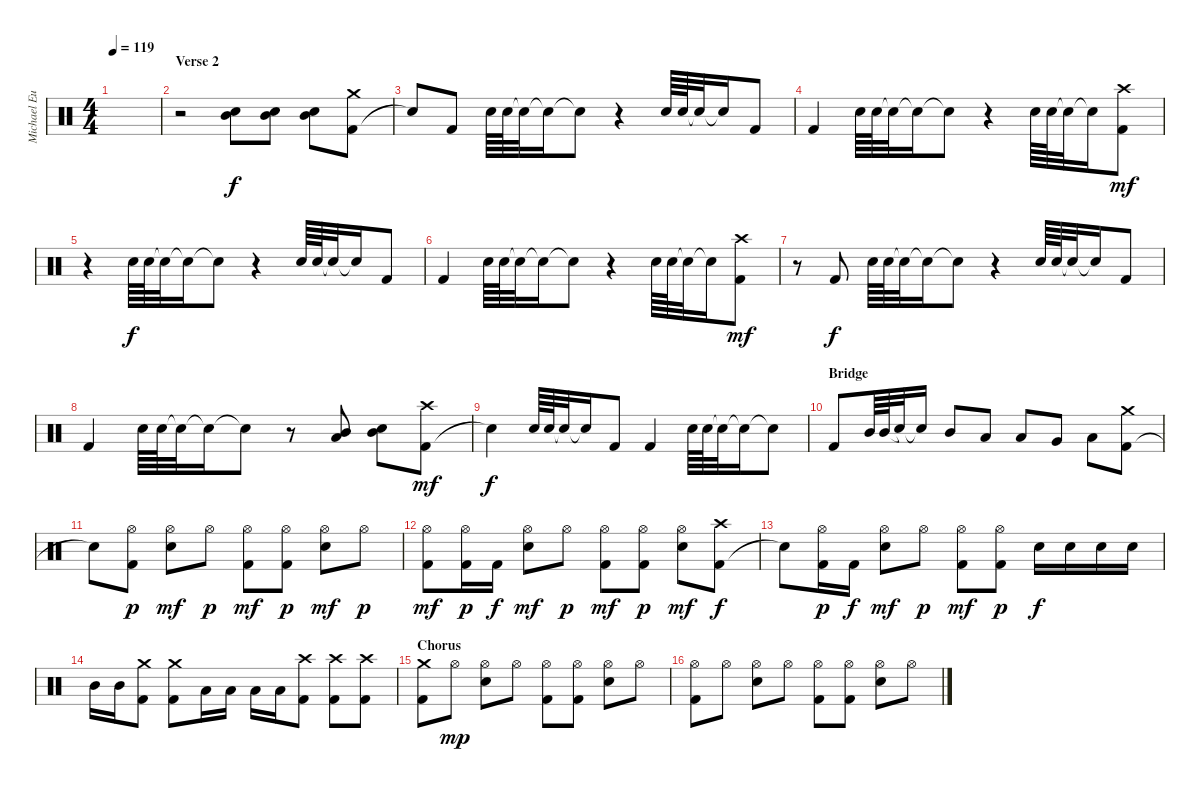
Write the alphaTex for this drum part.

\track ("Michael Eurich" "Michael Eu") {instrument percussion}
\staff {score}
\articulation defaults
\ts (4 4)
\tempo 119
\clef neutral
\ks c
|
\section ("" "Verse 2")
r.2 ("Mid Tom (hit)" "Snare (hit) 2").8 ("Mid Tom (hit)" "Snare (hit) 2").8 ("Mid Tom (hit)" "Snare (hit) 2").8 ("Kick (hit) 2" "Crash medium (hit)").8 |
"Snare (hit)"{t}.8 "Kick (hit) 2".8 "Snare (hit) 2".64 "Snare (hit) 2".64 "Snare (hit)"{t}.32 "Snare (hit)"{t}.16 "Snare (hit)"{t}.8 r.4 "Snare (hit) 2".64 "Snare (hit) 2".64 "Snare (hit)"{t}.32 "Snare (hit)"{t}.16 "Kick (hit) 2".8 |
"Kick (hit) 2".4 "Snare (hit) 2".64 "Snare (hit) 2".64 "Snare (hit)"{t}.32 "Snare (hit)"{t}.16 "Snare (hit)"{t}.8 r.4 "Snare (hit) 2".64 "Snare (hit) 2".64 "Snare (hit)"{t}.32 "Snare (hit)"{t}.16 ("Kick (hit) 2" "Crash high (hit)").8{dy mf} |
r.4 "Snare (hit) 2".64{dy f} "Snare (hit) 2".64 "Snare (hit)"{t}.32 "Snare (hit)"{t}.16 "Snare (hit)"{t}.8 r.4 "Snare (hit) 2".64 "Snare (hit) 2".64 "Snare (hit)"{t}.32 "Snare (hit)"{t}.16 "Kick (hit) 2".8 |
"Kick (hit) 2".4 "Snare (hit) 2".64 "Snare (hit) 2".64 "Snare (hit)"{t}.32 "Snare (hit)"{t}.16 "Snare (hit)"{t}.8 r.4 "Snare (hit) 2".64 "Snare (hit) 2".64 "Snare (hit)"{t}.32 "Snare (hit)"{t}.16 ("Kick (hit) 2" "Crash high (hit)").8{dy mf} |
r.8 "Kick (hit) 2".8{dy f} "Snare (hit) 2".64 "Snare (hit) 2".64 "Snare (hit)"{t}.32 "Snare (hit)"{t}.16 "Snare (hit)"{t}.8 r.4 "Snare (hit) 2".64 "Snare (hit) 2".64 "Snare (hit)"{t}.32 "Snare (hit)"{t}.16 "Kick (hit) 2".8 |
"Kick (hit) 2".4 "Snare (hit) 2".64 "Snare (hit) 2".64 "Snare (hit)"{t}.32 "Snare (hit)"{t}.16 "Snare (hit)"{t}.8 r.8 ("Mid Tom (hit)" "Low Tom (hit)").8 ("Mid Tom (hit)" "Snare (hit) 2").8 ("Kick (hit) 2" "Crash high (hit)").8{dy mf} |
"Snare (hit)"{t}.4{dy f} "Snare (hit) 2".64 "Snare (hit) 2".64 "Snare (hit)"{t}.32 "Snare (hit)"{t}.16 "Kick (hit) 2".8 "Kick (hit) 2".4 "Snare (hit) 2".64 "Snare (hit) 2".64 "Snare (hit)"{t}.32 "Snare (hit)"{t}.16 "Snare (hit)"{t}.8 |
\section ("" "Bridge")
"Kick (hit) 2".8 "Mid Tom (hit)".64 "Mid Tom (hit)".64 "Snare (hit)"{t}.32 "Snare (hit)"{t}.16 "Mid Tom (hit)".8 "Low Tom (hit)".8 "Low Tom (hit)".8 "Very Low Tom (hit)".8 "Low Floor Tom (hit)".8 ("Kick (hit) 2" "Crash medium (hit)").8 |
"Snare (hit)"{t}.8 ("Kick (hit) 2" "Hi-Hat (open)").8{dy p} ("Hi-Hat (open)" "Snare (hit) 2").8{dy mf} "Hi-Hat (open)".8{dy p} ("Kick (hit) 2" "Hi-Hat (open)").8{dy mf} ("Kick (hit) 2" "Hi-Hat (open)").8{dy p} ("Hi-Hat (open)" "Snare (hit) 2").8{dy mf} "Hi-Hat (open)".8{dy p} |
("Kick (hit) 2" "Hi-Hat (open)").8{dy mf} ("Kick (hit) 2" "Hi-Hat (open)").16{dy p} "Kick (hit) 2".16{dy f} ("Hi-Hat (open)" "Snare (hit) 2").8{dy mf} "Hi-Hat (open)".8{dy p} ("Kick (hit) 2" "Hi-Hat (open)").8{dy mf} ("Kick (hit) 2" "Hi-Hat (open)").8{dy p} ("Hi-Hat (open)" "Snare (hit) 2").8{dy mf} ("Kick (hit) 2" "Crash high (hit)").8{dy f} |
"Snare (hit)"{t}.8 ("Kick (hit) 2" "Hi-Hat (open)").16{dy p} "Kick (hit) 2".16{dy f} ("Hi-Hat (open)" "Snare (hit) 2").8{dy mf} "Hi-Hat (open)".8{dy p} ("Kick (hit) 2" "Hi-Hat (open)").8{dy mf} ("Kick (hit) 2" "Hi-Hat (open)").8{dy p} "Snare (hit) 2".16{dy f} "Snare (hit) 2".16 "Snare (hit) 2".16 "Snare (hit) 2".16 |
"Mid Tom (hit)".16 "Mid Tom (hit)".16 ("Kick (hit) 2" "Crash medium (hit)").8 ("Kick (hit) 2" "Crash medium (hit)").8 "Low Tom (hit)".16 "Low Tom (hit)".16 "Low Tom (hit)".16 "Low Tom (hit)".16 ("Kick (hit) 2" "Crash high (hit)").8 ("Kick (hit) 2" "Crash high (hit)").8 ("Kick (hit) 2" "Crash high (hit)").8 |
\section ("" "Chorus")
("Kick (hit) 2" "Crash medium (hit)").8 "Hi-Hat (open)".8{dy mp} ("Hi-Hat (open)" "Snare (hit) 2").8 "Hi-Hat (open)".8 ("Kick (hit) 2" "Hi-Hat (open)").8 ("Kick (hit) 2" "Hi-Hat (open)").8 ("Hi-Hat (open)" "Snare (hit) 2").8 "Hi-Hat (open)".8 |
("Kick (hit) 2" "Hi-Hat (open)").8 "Hi-Hat (open)".8 ("Hi-Hat (open)" "Snare (hit) 2").8 "Hi-Hat (open)".8 ("Kick (hit) 2" "Hi-Hat (open)").8 ("Kick (hit) 2" "Hi-Hat (open)").8 ("Hi-Hat (open)" "Snare (hit) 2").8 "Hi-Hat (open)".8
